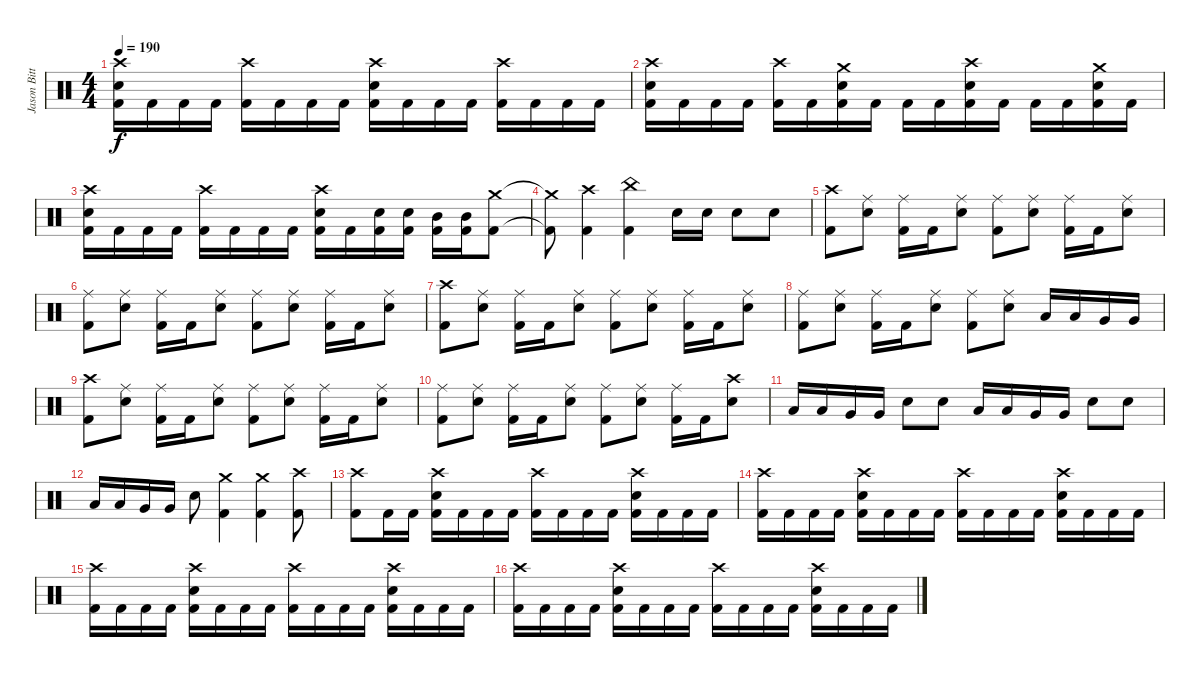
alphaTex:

\track ("Jason Bittner" "Jason Bitt") {instrument percussion}
\staff {score}
\articulation defaults
\ts (4 4)
\tempo 190
\clef neutral
\ks c
("Crash high (hit)" "Electric Snare (hit)" "Kick (hit) 2").16{dy f} "Kick (hit) 2".16 "Kick (hit) 2".16 "Kick (hit) 2".16 ("Crash high (hit)" "Kick (hit) 2").16 "Kick (hit) 2".16 "Kick (hit) 2".16 "Kick (hit) 2".16 ("Crash high (hit)" "Electric Snare (hit)" "Kick (hit) 2").16 "Kick (hit) 2".16 "Kick (hit) 2".16 "Kick (hit) 2".16 ("Crash high (hit)" "Kick (hit) 2").16 "Kick (hit) 2".16 "Kick (hit) 2".16 "Kick (hit) 2".16 |
("Crash high (hit)" "Electric Snare (hit)" "Kick (hit) 2").16 "Kick (hit) 2".16 "Kick (hit) 2".16 "Kick (hit) 2".16 ("Crash high (hit)" "Kick (hit) 2").16 "Kick (hit) 2".16 ("Crash medium (hit)" "Electric Snare (hit)" "Kick (hit) 2").16 "Kick (hit) 2".16 "Kick (hit) 2".16 "Kick (hit) 2".16 ("Crash high (hit)" "Electric Snare (hit)" "Kick (hit) 2").16 "Kick (hit) 2".16 "Kick (hit) 2".16 "Kick (hit) 2".16 ("Crash medium (hit)" "Electric Snare (hit)" "Kick (hit) 2").16 "Kick (hit) 2".16 |
("Crash high (hit)" "Electric Snare (hit)" "Kick (hit) 2").16 "Kick (hit) 2".16 "Kick (hit) 2".16 "Kick (hit) 2".16 ("Crash high (hit)" "Kick (hit) 2").16 "Kick (hit) 2".16 "Kick (hit) 2".16 "Kick (hit) 2".16 ("Crash high (hit)" "Electric Snare (hit)" "Kick (hit) 2").16 "Kick (hit) 2".16 ("Electric Snare (hit)" "Kick (hit) 2").16 ("Electric Snare (hit)" "Kick (hit) 2").16 ("Mid Tom (hit)" "Kick (hit) 2").16 ("Mid Tom (hit)" "Kick (hit) 2").16 ("Crash medium (hit)" "Kick (hit) 2").8 |
("Crash medium (hit)"{t} "Kick (hit) 2"{t}).8 ("Crash high (hit)" "Kick (hit) 2").4 ("China (hit)" "Kick (hit) 2").4 "Electric Snare (hit)".16 "Electric Snare (hit)".16 "Electric Snare (hit)".8 "Electric Snare (hit)".8 |
("Crash high (hit)" "Kick (hit) 2").8 ("Ride (middle)" "Electric Snare (hit)").8 ("Ride (middle)" "Kick (hit) 2").16 "Kick (hit) 2".16 ("Ride (middle)" "Electric Snare (hit)").8 ("Ride (middle)" "Kick (hit) 2").8 ("Ride (middle)" "Electric Snare (hit)").8 ("Ride (middle)" "Kick (hit) 2").16 "Kick (hit) 2".16 ("Ride (middle)" "Electric Snare (hit)").8 |
("Ride (middle)" "Kick (hit) 2").8 ("Ride (middle)" "Electric Snare (hit)").8 ("Ride (middle)" "Kick (hit) 2").16 "Kick (hit) 2".16 ("Ride (middle)" "Electric Snare (hit)").8 ("Ride (middle)" "Kick (hit) 2").8 ("Ride (middle)" "Electric Snare (hit)").8 ("Ride (middle)" "Kick (hit) 2").16 "Kick (hit) 2".16 ("Ride (middle)" "Electric Snare (hit)").8 |
("Crash high (hit)" "Kick (hit) 2").8 ("Ride (middle)" "Electric Snare (hit)").8 ("Ride (middle)" "Kick (hit) 2").16 "Kick (hit) 2".16 ("Ride (middle)" "Electric Snare (hit)").8 ("Ride (middle)" "Kick (hit) 2").8 ("Ride (middle)" "Electric Snare (hit)").8 ("Ride (middle)" "Kick (hit) 2").16 "Kick (hit) 2".16 ("Ride (middle)" "Electric Snare (hit)").8 |
("Ride (middle)" "Kick (hit) 2").8 ("Ride (middle)" "Electric Snare (hit)").8 ("Ride (middle)" "Kick (hit) 2").16 "Kick (hit) 2".16 ("Ride (middle)" "Electric Snare (hit)").8 ("Ride (middle)" "Kick (hit) 2").8 ("Ride (middle)" "Electric Snare (hit)").8 "Low Tom (hit)".16 "Low Tom (hit)".16 "Very Low Tom (hit)".16 "Very Low Tom (hit)".16 |
("Crash high (hit)" "Kick (hit) 2").8 ("Ride (middle)" "Electric Snare (hit)").8 ("Ride (middle)" "Kick (hit) 2").16 "Kick (hit) 2".16 ("Ride (middle)" "Electric Snare (hit)").8 ("Ride (middle)" "Kick (hit) 2").8 ("Ride (middle)" "Electric Snare (hit)").8 ("Ride (middle)" "Kick (hit) 2").16 "Kick (hit) 2".16 ("Ride (middle)" "Electric Snare (hit)").8 |
("Ride (middle)" "Kick (hit) 2").8 ("Ride (middle)" "Electric Snare (hit)").8 ("Ride (middle)" "Kick (hit) 2").16 "Kick (hit) 2".16 ("Ride (middle)" "Electric Snare (hit)").8 ("Ride (middle)" "Kick (hit) 2").8 ("Ride (middle)" "Electric Snare (hit)").8 ("Ride (middle)" "Kick (hit) 2").16 "Kick (hit) 2".16 ("Crash high (hit)" "Electric Snare (hit)").8 |
"Low Floor Tom (hit)".16 "Low Floor Tom (hit)".16 "Very Low Tom (hit)".16 "Very Low Tom (hit)".16 "Electric Snare (hit)".8 "Electric Snare (hit)".8 "Low Floor Tom (hit)".16 "Low Floor Tom (hit)".16 "Very Low Tom (hit)".16 "Very Low Tom (hit)".16 "Electric Snare (hit)".8 "Electric Snare (hit)".8 |
"Low Floor Tom (hit)".16 "Low Floor Tom (hit)".16 "Very Low Tom (hit)".16 "Very Low Tom (hit)".16 "Electric Snare (hit)".8 ("Crash medium (hit)" "Kick (hit) 2").4 ("Crash medium (hit)" "Kick (hit) 2").4 ("Crash high (hit)" "Kick (hit) 2").8 |
("Crash high (hit)" "Kick (hit) 2").8 "Kick (hit) 2".16 "Kick (hit) 2".16 ("Crash high (hit)" "Electric Snare (hit)" "Kick (hit) 2").16 "Kick (hit) 2".16 "Kick (hit) 2".16 "Kick (hit) 2".16 ("Crash high (hit)" "Kick (hit) 2").16 "Kick (hit) 2".16 "Kick (hit) 2".16 "Kick (hit) 2".16 ("Crash high (hit)" "Electric Snare (hit)" "Kick (hit) 2").16 "Kick (hit) 2".16 "Kick (hit) 2".16 "Kick (hit) 2".16 |
("Crash high (hit)" "Kick (hit) 2").16 "Kick (hit) 2".16 "Kick (hit) 2".16 "Kick (hit) 2".16 ("Crash high (hit)" "Electric Snare (hit)" "Kick (hit) 2").16 "Kick (hit) 2".16 "Kick (hit) 2".16 "Kick (hit) 2".16 ("Crash high (hit)" "Kick (hit) 2").16 "Kick (hit) 2".16 "Kick (hit) 2".16 "Kick (hit) 2".16 ("Crash high (hit)" "Electric Snare (hit)" "Kick (hit) 2").16 "Kick (hit) 2".16 "Kick (hit) 2".16 "Kick (hit) 2".16 |
("Crash high (hit)" "Kick (hit) 2").16 "Kick (hit) 2".16 "Kick (hit) 2".16 "Kick (hit) 2".16 ("Crash high (hit)" "Electric Snare (hit)" "Kick (hit) 2").16 "Kick (hit) 2".16 "Kick (hit) 2".16 "Kick (hit) 2".16 ("Crash high (hit)" "Kick (hit) 2").16 "Kick (hit) 2".16 "Kick (hit) 2".16 "Kick (hit) 2".16 ("Crash high (hit)" "Electric Snare (hit)" "Kick (hit) 2").16 "Kick (hit) 2".16 "Kick (hit) 2".16 "Kick (hit) 2".16 |
("Crash high (hit)" "Kick (hit) 2").16 "Kick (hit) 2".16 "Kick (hit) 2".16 "Kick (hit) 2".16 ("Crash high (hit)" "Electric Snare (hit)" "Kick (hit) 2").16 "Kick (hit) 2".16 "Kick (hit) 2".16 "Kick (hit) 2".16 ("Crash high (hit)" "Kick (hit) 2").16 "Kick (hit) 2".16 "Kick (hit) 2".16 "Kick (hit) 2".16 ("Crash high (hit)" "Electric Snare (hit)" "Kick (hit) 2").16 "Kick (hit) 2".16 "Kick (hit) 2".16 "Kick (hit) 2".16
